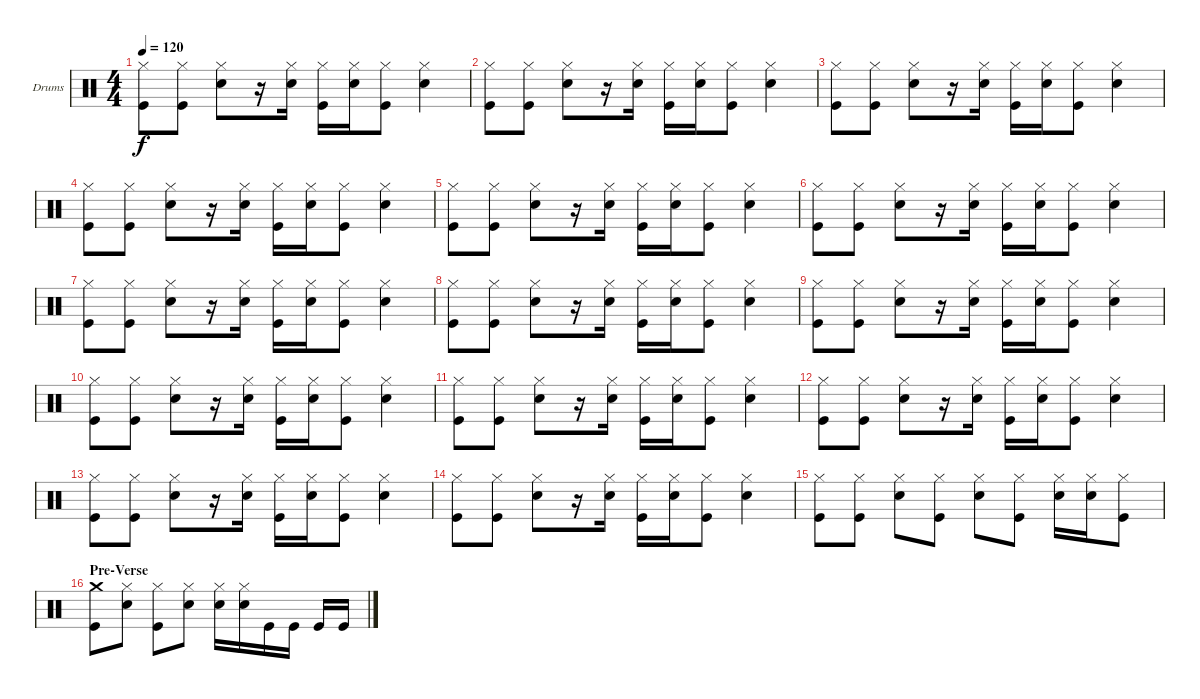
\defaultSystemsLayout 4
\bracketExtendMode groupsimilarinstruments
\firstSystemTrackNameOrientation horizontal
\otherSystemsTrackNameOrientation horizontal
\track ("Drum" "Drums") {instrument percussion}
\staff {score}
\articulation defaults
\ts (4 4)
\tempo 120
\clef neutral
\ks c
("Hi-Hat (closed)" "Kick (hit)").8{dy f} ("Hi-Hat (closed)" "Kick (hit)").8 ("Hi-Hat (closed)" "Snare (hit) 2").8 r.16 ("Hi-Hat (closed)" "Snare (hit) 2").16 ("Hi-Hat (closed)" "Kick (hit)").16 ("Hi-Hat (closed)" "Snare (hit) 2").16 ("Hi-Hat (closed)" "Kick (hit)").8 ("Hi-Hat (closed)" "Snare (hit) 2").4 |
("Hi-Hat (closed)" "Kick (hit)").8 ("Hi-Hat (closed)" "Kick (hit)").8 ("Hi-Hat (closed)" "Snare (hit) 2").8 r.16 ("Hi-Hat (closed)" "Snare (hit) 2").16 ("Hi-Hat (closed)" "Kick (hit)").16 ("Hi-Hat (closed)" "Snare (hit) 2").16 ("Hi-Hat (closed)" "Kick (hit)").8 ("Hi-Hat (closed)" "Snare (hit) 2").4 |
("Hi-Hat (closed)" "Kick (hit)").8 ("Hi-Hat (closed)" "Kick (hit)").8 ("Hi-Hat (closed)" "Snare (hit) 2").8 r.16 ("Hi-Hat (closed)" "Snare (hit) 2").16 ("Hi-Hat (closed)" "Kick (hit)").16 ("Hi-Hat (closed)" "Snare (hit) 2").16 ("Hi-Hat (closed)" "Kick (hit)").8 ("Hi-Hat (closed)" "Snare (hit) 2").4 |
("Hi-Hat (closed)" "Kick (hit)").8 ("Hi-Hat (closed)" "Kick (hit)").8 ("Hi-Hat (closed)" "Snare (hit) 2").8 r.16 ("Hi-Hat (closed)" "Snare (hit) 2").16 ("Hi-Hat (closed)" "Kick (hit)").16 ("Hi-Hat (closed)" "Snare (hit) 2").16 ("Hi-Hat (closed)" "Kick (hit)").8 ("Hi-Hat (closed)" "Snare (hit) 2").4 |
("Hi-Hat (closed)" "Kick (hit)").8 ("Hi-Hat (closed)" "Kick (hit)").8 ("Hi-Hat (closed)" "Snare (hit) 2").8 r.16 ("Hi-Hat (closed)" "Snare (hit) 2").16 ("Hi-Hat (closed)" "Kick (hit)").16 ("Hi-Hat (closed)" "Snare (hit) 2").16 ("Hi-Hat (closed)" "Kick (hit)").8 ("Hi-Hat (closed)" "Snare (hit) 2").4 |
("Hi-Hat (closed)" "Kick (hit)").8 ("Hi-Hat (closed)" "Kick (hit)").8 ("Hi-Hat (closed)" "Snare (hit) 2").8 r.16 ("Hi-Hat (closed)" "Snare (hit) 2").16 ("Hi-Hat (closed)" "Kick (hit)").16 ("Hi-Hat (closed)" "Snare (hit) 2").16 ("Hi-Hat (closed)" "Kick (hit)").8 ("Hi-Hat (closed)" "Snare (hit) 2").4 |
("Hi-Hat (closed)" "Kick (hit)").8 ("Hi-Hat (closed)" "Kick (hit)").8 ("Hi-Hat (closed)" "Snare (hit) 2").8 r.16 ("Hi-Hat (closed)" "Snare (hit) 2").16 ("Hi-Hat (closed)" "Kick (hit)").16 ("Hi-Hat (closed)" "Snare (hit) 2").16 ("Hi-Hat (closed)" "Kick (hit)").8 ("Hi-Hat (closed)" "Snare (hit) 2").4 |
("Hi-Hat (closed)" "Kick (hit)").8 ("Hi-Hat (closed)" "Kick (hit)").8 ("Hi-Hat (closed)" "Snare (hit) 2").8 r.16 ("Hi-Hat (closed)" "Snare (hit) 2").16 ("Hi-Hat (closed)" "Kick (hit)").16 ("Hi-Hat (closed)" "Snare (hit) 2").16 ("Hi-Hat (closed)" "Kick (hit)").8 ("Hi-Hat (closed)" "Snare (hit) 2").4 |
("Hi-Hat (closed)" "Kick (hit)").8 ("Hi-Hat (closed)" "Kick (hit)").8 ("Hi-Hat (closed)" "Snare (hit) 2").8 r.16 ("Hi-Hat (closed)" "Snare (hit) 2").16 ("Hi-Hat (closed)" "Kick (hit)").16 ("Hi-Hat (closed)" "Snare (hit) 2").16 ("Hi-Hat (closed)" "Kick (hit)").8 ("Hi-Hat (closed)" "Snare (hit) 2").4 |
("Hi-Hat (closed)" "Kick (hit)").8 ("Hi-Hat (closed)" "Kick (hit)").8 ("Hi-Hat (closed)" "Snare (hit) 2").8 r.16 ("Hi-Hat (closed)" "Snare (hit) 2").16 ("Hi-Hat (closed)" "Kick (hit)").16 ("Hi-Hat (closed)" "Snare (hit) 2").16 ("Hi-Hat (closed)" "Kick (hit)").8 ("Hi-Hat (closed)" "Snare (hit) 2").4 |
("Hi-Hat (closed)" "Kick (hit)").8 ("Hi-Hat (closed)" "Kick (hit)").8 ("Hi-Hat (closed)" "Snare (hit) 2").8 r.16 ("Hi-Hat (closed)" "Snare (hit) 2").16 ("Hi-Hat (closed)" "Kick (hit)").16 ("Hi-Hat (closed)" "Snare (hit) 2").16 ("Hi-Hat (closed)" "Kick (hit)").8 ("Hi-Hat (closed)" "Snare (hit) 2").4 |
("Hi-Hat (closed)" "Kick (hit)").8 ("Hi-Hat (closed)" "Kick (hit)").8 ("Hi-Hat (closed)" "Snare (hit) 2").8 r.16 ("Hi-Hat (closed)" "Snare (hit) 2").16 ("Hi-Hat (closed)" "Kick (hit)").16 ("Hi-Hat (closed)" "Snare (hit) 2").16 ("Hi-Hat (closed)" "Kick (hit)").8 ("Hi-Hat (closed)" "Snare (hit) 2").4 |
("Hi-Hat (closed)" "Kick (hit)").8 ("Hi-Hat (closed)" "Kick (hit)").8 ("Hi-Hat (closed)" "Snare (hit) 2").8 r.16 ("Hi-Hat (closed)" "Snare (hit) 2").16 ("Hi-Hat (closed)" "Kick (hit)").16 ("Hi-Hat (closed)" "Snare (hit) 2").16 ("Hi-Hat (closed)" "Kick (hit)").8 ("Hi-Hat (closed)" "Snare (hit) 2").4 |
("Hi-Hat (closed)" "Kick (hit)").8 ("Hi-Hat (closed)" "Kick (hit)").8 ("Hi-Hat (closed)" "Snare (hit) 2").8 r.16 ("Hi-Hat (closed)" "Snare (hit) 2").16 ("Hi-Hat (closed)" "Kick (hit)").16 ("Hi-Hat (closed)" "Snare (hit) 2").16 ("Hi-Hat (closed)" "Kick (hit)").8 ("Hi-Hat (closed)" "Snare (hit) 2").4 |
("Hi-Hat (closed)" "Kick (hit)").8 ("Hi-Hat (closed)" "Kick (hit)").8 ("Hi-Hat (closed)" "Snare (hit) 2").8 ("Hi-Hat (closed)" "Kick (hit)").8 ("Hi-Hat (closed)" "Snare (hit) 2").8 ("Hi-Hat (closed)" "Kick (hit)").8 ("Hi-Hat (closed)" "Snare (hit) 2").16 ("Hi-Hat (closed)" "Snare (hit) 2").16 ("Hi-Hat (closed)" "Kick (hit)").8 |
\section ("" "Pre-Verse")
("Crash medium (hit)" "Kick (hit)").8 ("Hi-Hat (closed)" "Snare (hit) 2").8 ("Hi-Hat (closed)" "Kick (hit)").8 ("Hi-Hat (closed)" "Snare (hit) 2").8 ("Hi-Hat (closed)" "Snare (hit) 2").16 ("Hi-Hat (closed)" "Snare (hit) 2").16 "Kick (hit)".16 "Kick (hit)".16 "Kick (hit)".16 "Kick (hit)".16
